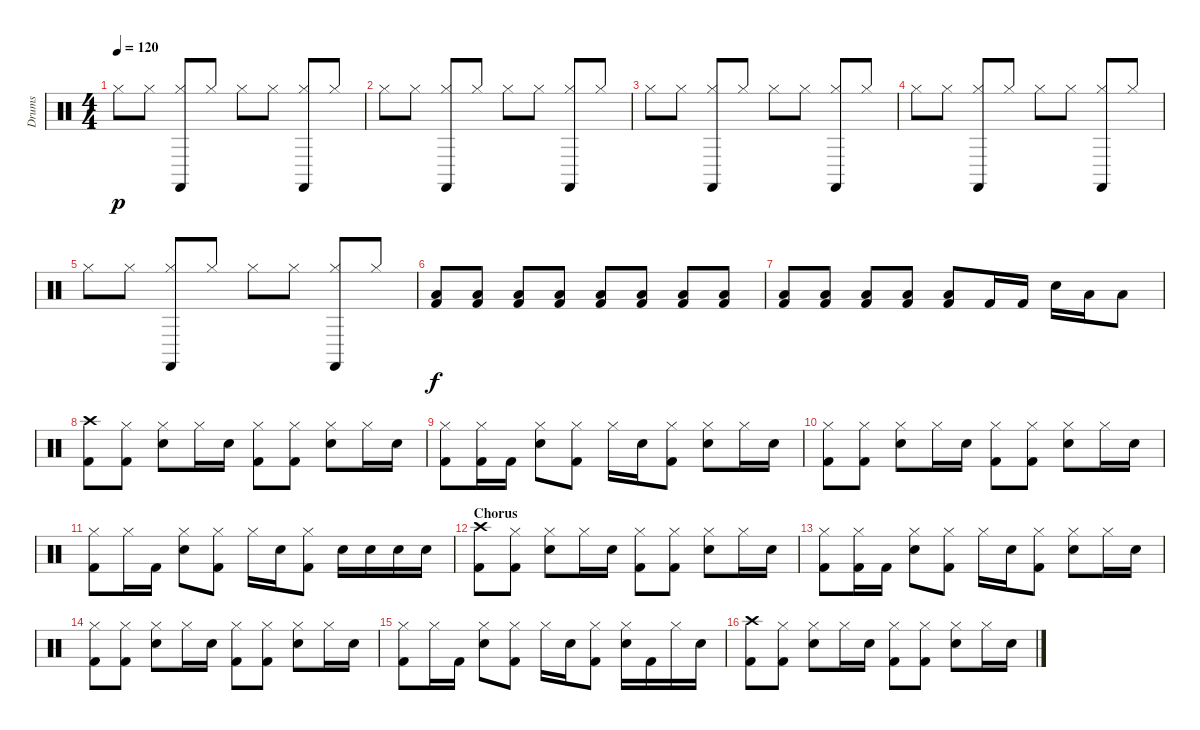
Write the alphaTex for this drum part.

\track ("Drums" "Drums") {instrument percussion}
\staff {score}
\articulation defaults
\ts (4 4)
\tempo 120
\clef neutral
\ks c "Hi-Hat (closed)".8{dy p} "Hi-Hat (closed)".8
("Hi-Hat (closed)" "Castanets (hit)").8 "Hi-Hat (closed)".8 "Hi-Hat (closed)".8 "Hi-Hat (closed)".8 ("Hi-Hat (closed)" "Castanets (hit)").8 "Hi-Hat (closed)".8 |
"Hi-Hat (closed)".8 "Hi-Hat (closed)".8 ("Hi-Hat (closed)" "Castanets (hit)").8 "Hi-Hat (closed)".8 "Hi-Hat (closed)".8 "Hi-Hat (closed)".8 ("Hi-Hat (closed)" "Castanets (hit)").8 "Hi-Hat (closed)".8 |
"Hi-Hat (closed)".8 "Hi-Hat (closed)".8 ("Hi-Hat (closed)" "Castanets (hit)").8 "Hi-Hat (closed)".8 "Hi-Hat (closed)".8 "Hi-Hat (closed)".8 ("Hi-Hat (closed)" "Castanets (hit)").8 "Hi-Hat (closed)".8 |
"Hi-Hat (closed)".8 "Hi-Hat (closed)".8 ("Hi-Hat (closed)" "Castanets (hit)").8 "Hi-Hat (closed)".8 "Hi-Hat (closed)".8 "Hi-Hat (closed)".8 ("Hi-Hat (closed)" "Castanets (hit)").8 "Hi-Hat (closed)".8 |
"Hi-Hat (closed)".8 "Hi-Hat (closed)".8 ("Hi-Hat (closed)" "Castanets (hit)").8 "Hi-Hat (closed)".8 "Hi-Hat (closed)".8 "Hi-Hat (closed)".8 ("Hi-Hat (closed)" "Castanets (hit)").8 "Hi-Hat (closed)".8 |
("Low Floor Tom (hit)" "Kick (hit) 2").8{dy f} ("Low Floor Tom (hit)" "Kick (hit) 2").8 ("Low Floor Tom (hit)" "Kick (hit) 2").8 ("Low Floor Tom (hit)" "Kick (hit) 2").8 ("Low Floor Tom (hit)" "Kick (hit) 2").8 ("Low Floor Tom (hit)" "Kick (hit) 2").8 ("Low Floor Tom (hit)" "Kick (hit) 2").8 ("Low Floor Tom (hit)" "Kick (hit) 2").8 |
("Low Floor Tom (hit)" "Kick (hit) 2").8 ("Low Floor Tom (hit)" "Kick (hit) 2").8 ("Low Floor Tom (hit)" "Kick (hit) 2").8 ("Low Floor Tom (hit)" "Kick (hit) 2").8 ("Low Floor Tom (hit)" "Kick (hit) 2").8 "Kick (hit) 2".16 "Kick (hit) 2".16 "Snare (hit) 2".16 "Low Tom (hit)".16 "Low Floor Tom (hit)".8 |
("Crash high (hit)" "Kick (hit) 2").8 ("Hi-Hat (closed)" "Kick (hit) 2").8 ("Hi-Hat (closed)" "Snare (hit) 2").8 "Hi-Hat (closed)".16 "Snare (hit) 2".16 ("Hi-Hat (closed)" "Kick (hit) 2").8 ("Hi-Hat (closed)" "Kick (hit) 2").8 ("Hi-Hat (closed)" "Snare (hit) 2").8 "Hi-Hat (closed)".16 "Snare (hit) 2".16 |
("Hi-Hat (closed)" "Kick (hit) 2").8 ("Hi-Hat (closed)" "Kick (hit) 2").16 "Kick (hit) 2".16 ("Hi-Hat (closed)" "Snare (hit) 2").8 ("Hi-Hat (closed)" "Kick (hit) 2").8 "Hi-Hat (closed)".16 "Snare (hit) 2".16 ("Hi-Hat (closed)" "Kick (hit) 2").8 ("Hi-Hat (closed)" "Snare (hit) 2").8 "Hi-Hat (closed)".16 "Snare (hit) 2".16 |
("Hi-Hat (closed)" "Kick (hit) 2").8 ("Hi-Hat (closed)" "Kick (hit) 2").8 ("Hi-Hat (closed)" "Snare (hit) 2").8 "Hi-Hat (closed)".16 "Snare (hit) 2".16 ("Hi-Hat (closed)" "Kick (hit) 2").8 ("Hi-Hat (closed)" "Kick (hit) 2").8 ("Hi-Hat (closed)" "Snare (hit) 2").8 "Hi-Hat (closed)".16 "Snare (hit) 2".16 |
("Hi-Hat (closed)" "Kick (hit) 2").8 "Hi-Hat (closed)".16 "Kick (hit) 2".16 ("Hi-Hat (closed)" "Snare (hit) 2").8 ("Hi-Hat (closed)" "Kick (hit) 2").8 "Hi-Hat (closed)".16 "Snare (hit) 2".16 ("Hi-Hat (closed)" "Kick (hit) 2").8 "Snare (hit) 2".16 "Snare (hit) 2".16 "Snare (hit) 2".16 "Snare (hit) 2".16 |
\section ("" "Chorus")
("Crash high (hit)" "Kick (hit) 2").8 ("Hi-Hat (closed)" "Kick (hit) 2").8 ("Hi-Hat (closed)" "Snare (hit) 2").8 "Hi-Hat (closed)".16 "Snare (hit) 2".16 ("Hi-Hat (closed)" "Kick (hit) 2").8 ("Hi-Hat (closed)" "Kick (hit) 2").8 ("Hi-Hat (closed)" "Snare (hit) 2").8 "Hi-Hat (closed)".16 "Snare (hit) 2".16 |
("Hi-Hat (closed)" "Kick (hit) 2").8 ("Hi-Hat (closed)" "Kick (hit) 2").16 "Kick (hit) 2".16 ("Hi-Hat (closed)" "Snare (hit) 2").8 ("Hi-Hat (closed)" "Kick (hit) 2").8 "Hi-Hat (closed)".16 "Snare (hit) 2".16 ("Hi-Hat (closed)" "Kick (hit) 2").8 ("Hi-Hat (closed)" "Snare (hit) 2").8 "Hi-Hat (closed)".16 "Snare (hit) 2".16 |
("Hi-Hat (closed)" "Kick (hit) 2").8 ("Hi-Hat (closed)" "Kick (hit) 2").8 ("Hi-Hat (closed)" "Snare (hit) 2").8 "Hi-Hat (closed)".16 "Snare (hit) 2".16 ("Hi-Hat (closed)" "Kick (hit) 2").8 ("Hi-Hat (closed)" "Kick (hit) 2").8 ("Hi-Hat (closed)" "Snare (hit) 2").8 "Hi-Hat (closed)".16 "Snare (hit) 2".16 |
("Hi-Hat (closed)" "Kick (hit) 2").8 "Hi-Hat (closed)".16 "Kick (hit) 2".16 ("Hi-Hat (closed)" "Snare (hit) 2").8 ("Hi-Hat (closed)" "Kick (hit) 2").8 "Hi-Hat (closed)".16 "Snare (hit) 2".16 ("Hi-Hat (closed)" "Kick (hit) 2").8 ("Hi-Hat (closed)" "Snare (hit) 2").16 "Kick (hit) 2".16 "Hi-Hat (closed)".16 "Snare (hit) 2".16 |
("Crash high (hit)" "Kick (hit) 2").8 ("Hi-Hat (closed)" "Kick (hit) 2").8 ("Hi-Hat (closed)" "Snare (hit) 2").8 "Hi-Hat (closed)".16 "Snare (hit) 2".16 ("Hi-Hat (closed)" "Kick (hit) 2").8 ("Hi-Hat (closed)" "Kick (hit) 2").8 ("Hi-Hat (closed)" "Snare (hit) 2").8 "Hi-Hat (closed)".16 "Snare (hit) 2".16
